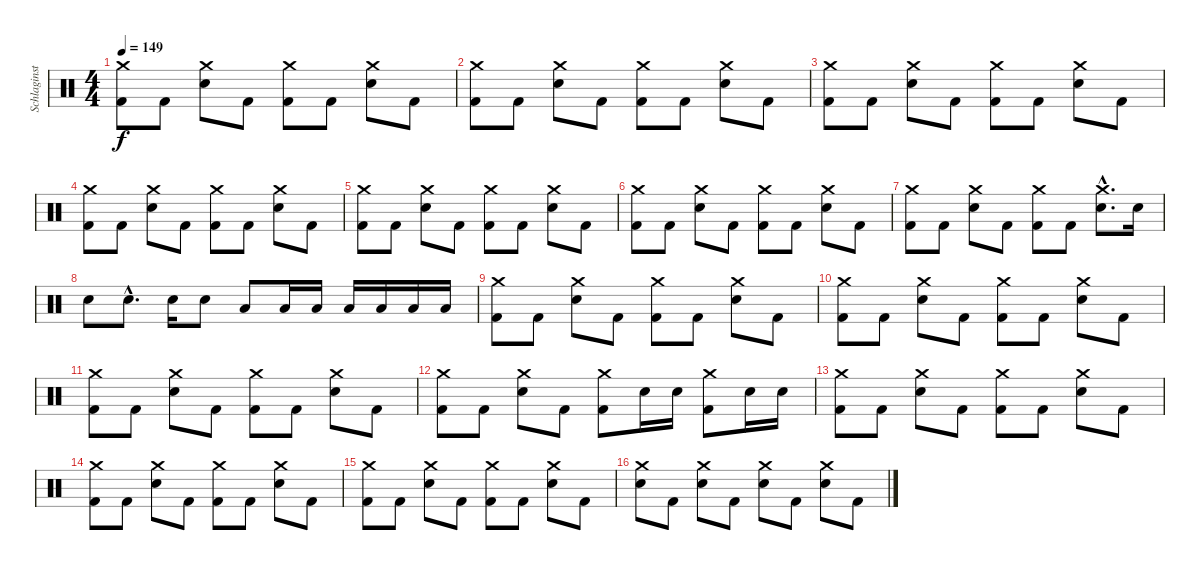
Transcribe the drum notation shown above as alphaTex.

\track ("Schlaginstrumente - Auswahl" "Schlaginst") {instrument percussion}
\staff {score}
\articulation defaults
\ts (4 4)
\tempo 149
\clef neutral
\ks c
("Crash medium (hit)" "Kick (hit) 2").8{dy f} "Kick (hit) 2".8 ("Crash medium (hit)" "Electric Snare (hit)").8 "Kick (hit) 2".8 ("Crash medium (hit)" "Kick (hit) 2").8 "Kick (hit) 2".8 ("Crash medium (hit)" "Electric Snare (hit)").8 "Kick (hit) 2".8 |
("Crash medium (hit)" "Kick (hit) 2").8 "Kick (hit) 2".8 ("Crash medium (hit)" "Electric Snare (hit)").8 "Kick (hit) 2".8 ("Crash medium (hit)" "Kick (hit) 2").8 "Kick (hit) 2".8 ("Crash medium (hit)" "Electric Snare (hit)").8 "Kick (hit) 2".8 |
("Crash medium (hit)" "Kick (hit) 2").8 "Kick (hit) 2".8 ("Crash medium (hit)" "Electric Snare (hit)").8 "Kick (hit) 2".8 ("Crash medium (hit)" "Kick (hit) 2").8 "Kick (hit) 2".8 ("Crash medium (hit)" "Electric Snare (hit)").8 "Kick (hit) 2".8 |
("Crash medium (hit)" "Kick (hit) 2").8 "Kick (hit) 2".8 ("Crash medium (hit)" "Electric Snare (hit)").8 "Kick (hit) 2".8 ("Crash medium (hit)" "Kick (hit) 2").8 "Kick (hit) 2".8 ("Crash medium (hit)" "Electric Snare (hit)").8 "Kick (hit) 2".8 |
("Crash medium (hit)" "Kick (hit) 2").8 "Kick (hit) 2".8 ("Crash medium (hit)" "Electric Snare (hit)").8 "Kick (hit) 2".8 ("Crash medium (hit)" "Kick (hit) 2").8 "Kick (hit) 2".8 ("Crash medium (hit)" "Electric Snare (hit)").8 "Kick (hit) 2".8 |
("Crash medium (hit)" "Kick (hit) 2").8 "Kick (hit) 2".8 ("Crash medium (hit)" "Electric Snare (hit)").8 "Kick (hit) 2".8 ("Crash medium (hit)" "Kick (hit) 2").8 "Kick (hit) 2".8 ("Crash medium (hit)" "Electric Snare (hit)").8 "Kick (hit) 2".8 |
("Crash medium (hit)" "Kick (hit) 2").8 "Kick (hit) 2".8 ("Crash medium (hit)" "Electric Snare (hit)").8 "Kick (hit) 2".8 ("Crash medium (hit)" "Kick (hit) 2").8 "Kick (hit) 2".8 ("Crash medium (hit)"{hac} "Electric Snare (hit)"{hac}).8{d} "Electric Snare (hit)".16 |
"Electric Snare (hit)".8 "Electric Snare (hit)"{hac}.8{d} "Electric Snare (hit)".16 "Electric Snare (hit)".8 "Low Floor Tom (hit)".8 "Low Floor Tom (hit)".16 "Low Floor Tom (hit)".16 "Low Floor Tom (hit)".16 "Low Floor Tom (hit)".16 "Low Floor Tom (hit)".16 "Low Floor Tom (hit)".16 |
("Crash medium (hit)" "Kick (hit) 2").8 "Kick (hit) 2".8 ("Crash medium (hit)" "Electric Snare (hit)").8 "Kick (hit) 2".8 ("Crash medium (hit)" "Kick (hit) 2").8 "Kick (hit) 2".8 ("Crash medium (hit)" "Electric Snare (hit)").8 "Kick (hit) 2".8 |
("Crash medium (hit)" "Kick (hit) 2").8 "Kick (hit) 2".8 ("Crash medium (hit)" "Electric Snare (hit)").8 "Kick (hit) 2".8 ("Crash medium (hit)" "Kick (hit) 2").8 "Kick (hit) 2".8 ("Crash medium (hit)" "Electric Snare (hit)").8 "Kick (hit) 2".8 |
("Crash medium (hit)" "Kick (hit) 2").8 "Kick (hit) 2".8 ("Crash medium (hit)" "Electric Snare (hit)").8 "Kick (hit) 2".8 ("Crash medium (hit)" "Kick (hit) 2").8 "Kick (hit) 2".8 ("Crash medium (hit)" "Electric Snare (hit)").8 "Kick (hit) 2".8 |
("Crash medium (hit)" "Kick (hit) 2").8 "Kick (hit) 2".8 ("Crash medium (hit)" "Electric Snare (hit)").8 "Kick (hit) 2".8 ("Crash medium (hit)" "Kick (hit) 2").8 "Electric Snare (hit)".16 "Electric Snare (hit)".16 ("Crash medium (hit)" "Kick (hit) 2").8 "Electric Snare (hit)".16 "Electric Snare (hit)".16 |
("Crash medium (hit)" "Kick (hit) 2").8 "Kick (hit) 2".8 ("Crash medium (hit)" "Electric Snare (hit)").8 "Kick (hit) 2".8 ("Crash medium (hit)" "Kick (hit) 2").8 "Kick (hit) 2".8 ("Crash medium (hit)" "Electric Snare (hit)").8 "Kick (hit) 2".8 |
("Crash medium (hit)" "Kick (hit) 2").8 "Kick (hit) 2".8 ("Crash medium (hit)" "Electric Snare (hit)").8 "Kick (hit) 2".8 ("Crash medium (hit)" "Kick (hit) 2").8 "Kick (hit) 2".8 ("Crash medium (hit)" "Electric Snare (hit)").8 "Kick (hit) 2".8 |
("Crash medium (hit)" "Kick (hit) 2").8 "Kick (hit) 2".8 ("Crash medium (hit)" "Electric Snare (hit)").8 "Kick (hit) 2".8 ("Crash medium (hit)" "Kick (hit) 2").8 "Kick (hit) 2".8 ("Crash medium (hit)" "Electric Snare (hit)").8 "Kick (hit) 2".8 |
("Crash medium (hit)" "Electric Snare (hit)").8 "Kick (hit) 2".8 ("Crash medium (hit)" "Electric Snare (hit)").8 "Kick (hit) 2".8 ("Crash medium (hit)" "Electric Snare (hit)").8 "Kick (hit) 2".8 ("Crash medium (hit)" "Electric Snare (hit)").8 "Kick (hit) 2".8
